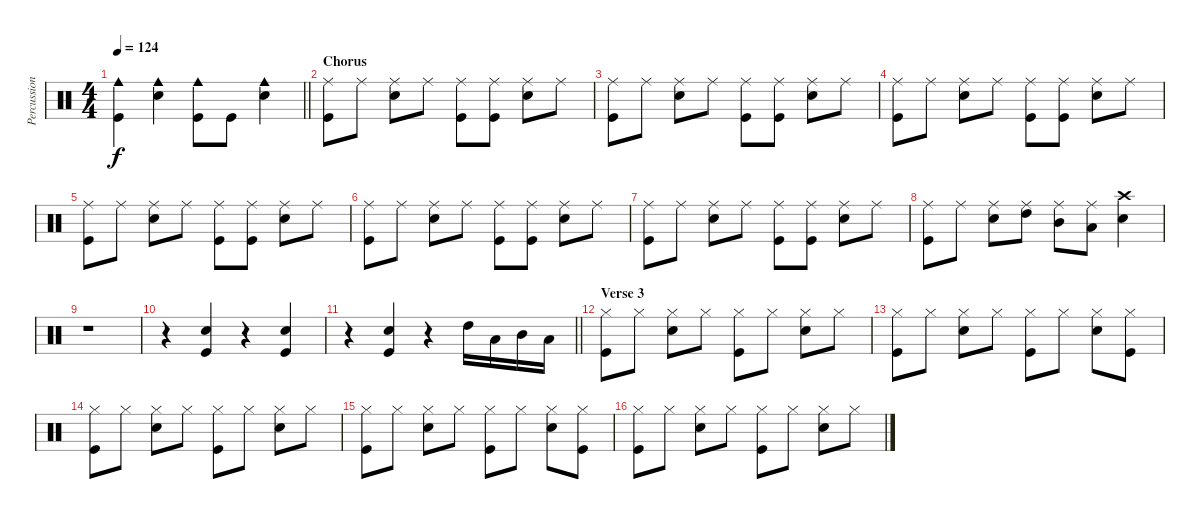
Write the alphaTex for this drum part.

\track ("Percussion" "Percussion") {solo instrument percussion}
\staff {score}
\articulation defaults
\ts (4 4)
\tempo 124
\clef neutral
\barLineRight lightlight
\ks c
("Cowbell medium (hit)" "Kick (hit)").4{dy f} ("Cowbell medium (hit)" "Electric Snare (hit)").4 ("Cowbell medium (hit)" "Kick (hit)").8 "Kick (hit)".8 ("Cowbell medium (hit)" "Electric Snare (hit)").4 |
\section ("" "Chorus")
("Ride (middle)" "Kick (hit)").8 "Ride (middle)".8 ("Ride (middle)" "Electric Snare (hit)").8 "Ride (middle)".8 ("Ride (middle)" "Kick (hit)").8 ("Ride (middle)" "Kick (hit)").8 ("Ride (middle)" "Electric Snare (hit)").8 "Ride (middle)".8 |
("Ride (middle)" "Kick (hit)").8 "Ride (middle)".8 ("Ride (middle)" "Electric Snare (hit)").8 "Ride (middle)".8 ("Ride (middle)" "Kick (hit)").8 ("Ride (middle)" "Kick (hit)").8 ("Ride (middle)" "Electric Snare (hit)").8 "Ride (middle)".8 |
("Ride (middle)" "Kick (hit)").8 "Ride (middle)".8 ("Ride (middle)" "Electric Snare (hit)").8 "Ride (middle)".8 ("Ride (middle)" "Kick (hit)").8 ("Ride (middle)" "Kick (hit)").8 ("Ride (middle)" "Electric Snare (hit)").8 "Ride (middle)".8 |
("Ride (middle)" "Kick (hit)").8 "Ride (middle)".8 ("Ride (middle)" "Electric Snare (hit)").8 "Ride (middle)".8 ("Ride (middle)" "Kick (hit)").8 ("Ride (middle)" "Kick (hit)").8 ("Ride (middle)" "Electric Snare (hit)").8 "Ride (middle)".8 |
("Ride (middle)" "Kick (hit)").8 "Ride (middle)".8 ("Ride (middle)" "Electric Snare (hit)").8 "Ride (middle)".8 ("Ride (middle)" "Kick (hit)").8 ("Ride (middle)" "Kick (hit)").8 ("Ride (middle)" "Electric Snare (hit)").8 "Ride (middle)".8 |
("Ride (middle)" "Kick (hit)").8 "Ride (middle)".8 ("Ride (middle)" "Electric Snare (hit)").8 "Ride (middle)".8 ("Ride (middle)" "Kick (hit)").8 ("Ride (middle)" "Kick (hit)").8 ("Ride (middle)" "Electric Snare (hit)").8 "Ride (middle)".8 |
("Ride (middle)" "Kick (hit)").8 "Ride (middle)".8 ("Ride (middle)" "Electric Snare (hit)").8 ("Ride (middle)" "High Tom (hit)").8 ("Ride (middle)" "Mid Tom (hit)").8 ("Ride (middle)" "Low Tom (hit)").8 ("Crash high (hit)" "Electric Snare (hit)").4 |
r.1 |
r.4 ("Electric Snare (hit)" "Kick (hit)").4 r.4 ("Electric Snare (hit)" "Kick (hit)").4 |
\barLineRight lightlight
r.4 ("Electric Snare (hit)" "Kick (hit)").4 r.4 "High Tom (hit)".16 "Low Tom (hit)".16 "Mid Tom (hit)".16 "Low Floor Tom (hit)".16 |
\section ("" "Verse 3")
("Hi-Hat (closed)" "Kick (hit)").8 "Hi-Hat (closed)".8 ("Hi-Hat (closed)" "Electric Snare (hit)").8 "Hi-Hat (closed)".8 ("Hi-Hat (closed)" "Kick (hit)").8 "Hi-Hat (closed)".8 ("Hi-Hat (closed)" "Electric Snare (hit)").8 "Hi-Hat (closed)".8 |
("Hi-Hat (closed)" "Kick (hit)").8 "Hi-Hat (closed)".8 ("Hi-Hat (closed)" "Electric Snare (hit)").8 "Hi-Hat (closed)".8 ("Hi-Hat (closed)" "Kick (hit)").8 "Hi-Hat (closed)".8 ("Hi-Hat (closed)" "Electric Snare (hit)").8 ("Hi-Hat (closed)" "Kick (hit)").8 |
("Hi-Hat (closed)" "Kick (hit)").8 "Hi-Hat (closed)".8 ("Hi-Hat (closed)" "Electric Snare (hit)").8 "Hi-Hat (closed)".8 ("Hi-Hat (closed)" "Kick (hit)").8 "Hi-Hat (closed)".8 ("Hi-Hat (closed)" "Electric Snare (hit)").8 "Hi-Hat (closed)".8 |
("Hi-Hat (closed)" "Kick (hit)").8 "Hi-Hat (closed)".8 ("Hi-Hat (closed)" "Electric Snare (hit)").8 "Hi-Hat (closed)".8 ("Hi-Hat (closed)" "Kick (hit)").8 "Hi-Hat (closed)".8 ("Hi-Hat (closed)" "Electric Snare (hit)").8 ("Hi-Hat (closed)" "Kick (hit)").8 |
("Hi-Hat (closed)" "Kick (hit)").8 "Hi-Hat (closed)".8 ("Hi-Hat (closed)" "Electric Snare (hit)").8 "Hi-Hat (closed)".8 ("Hi-Hat (closed)" "Kick (hit)").8 "Hi-Hat (closed)".8 ("Hi-Hat (closed)" "Electric Snare (hit)").8 "Hi-Hat (closed)".8
